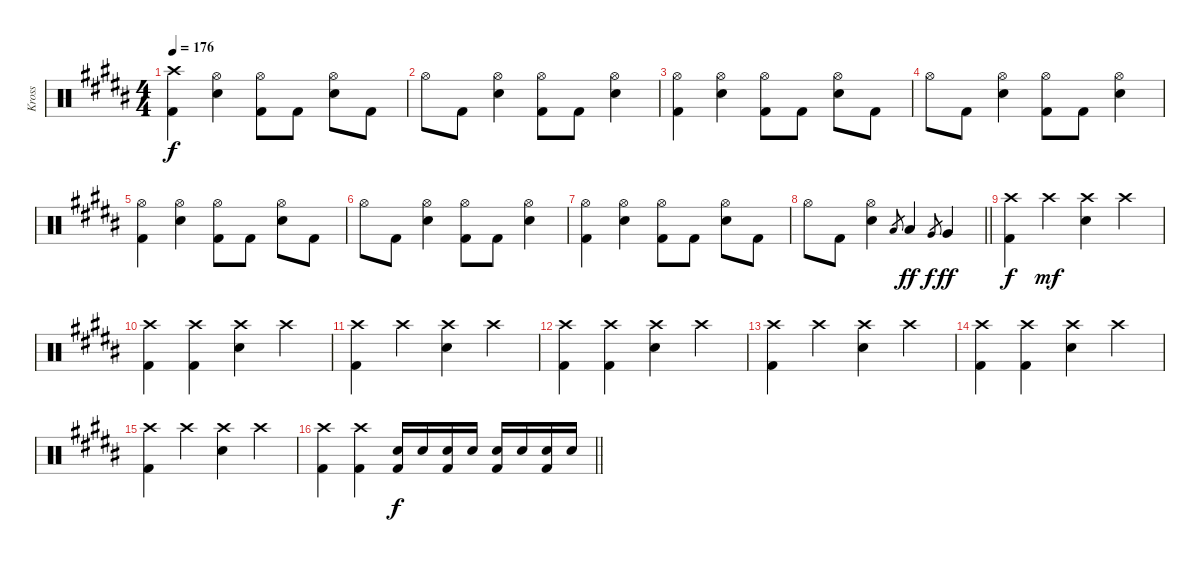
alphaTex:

\track ("Kross" "Kross") {instrument percussion}
\staff {score}
\articulation defaults
\ts (4 4)
\tempo 176
\clef neutral
\ks b
("Crash high (hit)" "Kick (hit) 2").4{dy f} ("Hi-Hat (open)" "Electric Snare (hit)").4 ("Hi-Hat (open)" "Kick (hit) 2").8 "Kick (hit) 2".8 ("Hi-Hat (open)" "Electric Snare (hit)").8 "Kick (hit) 2".8 |
"Hi-Hat (open)".8 "Kick (hit) 2".8 ("Hi-Hat (open)" "Electric Snare (hit)").4 ("Hi-Hat (open)" "Kick (hit) 2").8 "Kick (hit) 2".8 ("Hi-Hat (open)" "Electric Snare (hit)").4 |
("Hi-Hat (open)" "Kick (hit) 2").4 ("Hi-Hat (open)" "Electric Snare (hit)").4 ("Hi-Hat (open)" "Kick (hit) 2").8 "Kick (hit) 2".8 ("Hi-Hat (open)" "Electric Snare (hit)").8 "Kick (hit) 2".8 |
"Hi-Hat (open)".8 "Kick (hit) 2".8 ("Hi-Hat (open)" "Electric Snare (hit)").4 ("Hi-Hat (open)" "Kick (hit) 2").8 "Kick (hit) 2".8 ("Hi-Hat (open)" "Electric Snare (hit)").4 |
("Hi-Hat (open)" "Kick (hit) 2").4 ("Hi-Hat (open)" "Electric Snare (hit)").4 ("Hi-Hat (open)" "Kick (hit) 2").8 "Kick (hit) 2".8 ("Hi-Hat (open)" "Electric Snare (hit)").8 "Kick (hit) 2".8 |
"Hi-Hat (open)".8 "Kick (hit) 2".8 ("Hi-Hat (open)" "Electric Snare (hit)").4 ("Hi-Hat (open)" "Kick (hit) 2").8 "Kick (hit) 2".8 ("Hi-Hat (open)" "Electric Snare (hit)").4 |
("Hi-Hat (open)" "Kick (hit) 2").4 ("Hi-Hat (open)" "Electric Snare (hit)").4 ("Hi-Hat (open)" "Kick (hit) 2").8 "Kick (hit) 2".8 ("Hi-Hat (open)" "Electric Snare (hit)").8 "Kick (hit) 2".8 |
\barLineRight lightlight "Hi-Hat (open)".8 "Kick (hit) 2".8
("Hi-Hat (open)" "Electric Snare (hit)").4 "Low Tom (hit)".8{gr} "Low Tom (hit)".4{dy ff} "Very Low Tom (hit)".8{gr dy f} "Very Low Tom (hit)".4{dy ff} |
("Crash high (hit)" "Kick (hit) 2").4{dy f} "Crash high (hit)".4{dy mf} ("Crash high (hit)" "Electric Snare (hit)").4 "Crash high (hit)".4 |
("Crash high (hit)" "Kick (hit) 2").4 ("Crash high (hit)" "Kick (hit) 2").4 ("Crash high (hit)" "Electric Snare (hit)").4 "Crash high (hit)".4 |
("Crash high (hit)" "Kick (hit) 2").4 "Crash high (hit)".4 ("Crash high (hit)" "Electric Snare (hit)").4 "Crash high (hit)".4 |
("Crash high (hit)" "Kick (hit) 2").4 ("Crash high (hit)" "Kick (hit) 2").4 ("Crash high (hit)" "Electric Snare (hit)").4 "Crash high (hit)".4 |
("Crash high (hit)" "Kick (hit) 2").4 "Crash high (hit)".4 ("Crash high (hit)" "Electric Snare (hit)").4 "Crash high (hit)".4 |
("Crash high (hit)" "Kick (hit) 2").4 ("Crash high (hit)" "Kick (hit) 2").4 ("Crash high (hit)" "Electric Snare (hit)").4 "Crash high (hit)".4 |
("Crash high (hit)" "Kick (hit) 2").4 "Crash high (hit)".4 ("Crash high (hit)" "Electric Snare (hit)").4 "Crash high (hit)".4 |
\barLineRight lightlight
("Crash high (hit)" "Kick (hit) 2").4 ("Crash high (hit)" "Kick (hit) 2").4 ("Electric Snare (hit)" "Kick (hit) 2").16{dy f} "Electric Snare (hit)".16 ("Electric Snare (hit)" "Kick (hit) 2").16 "Electric Snare (hit)".16 ("Electric Snare (hit)" "Kick (hit) 2").16 "Electric Snare (hit)".16 ("Electric Snare (hit)" "Kick (hit) 2").16 "Electric Snare (hit)".16
